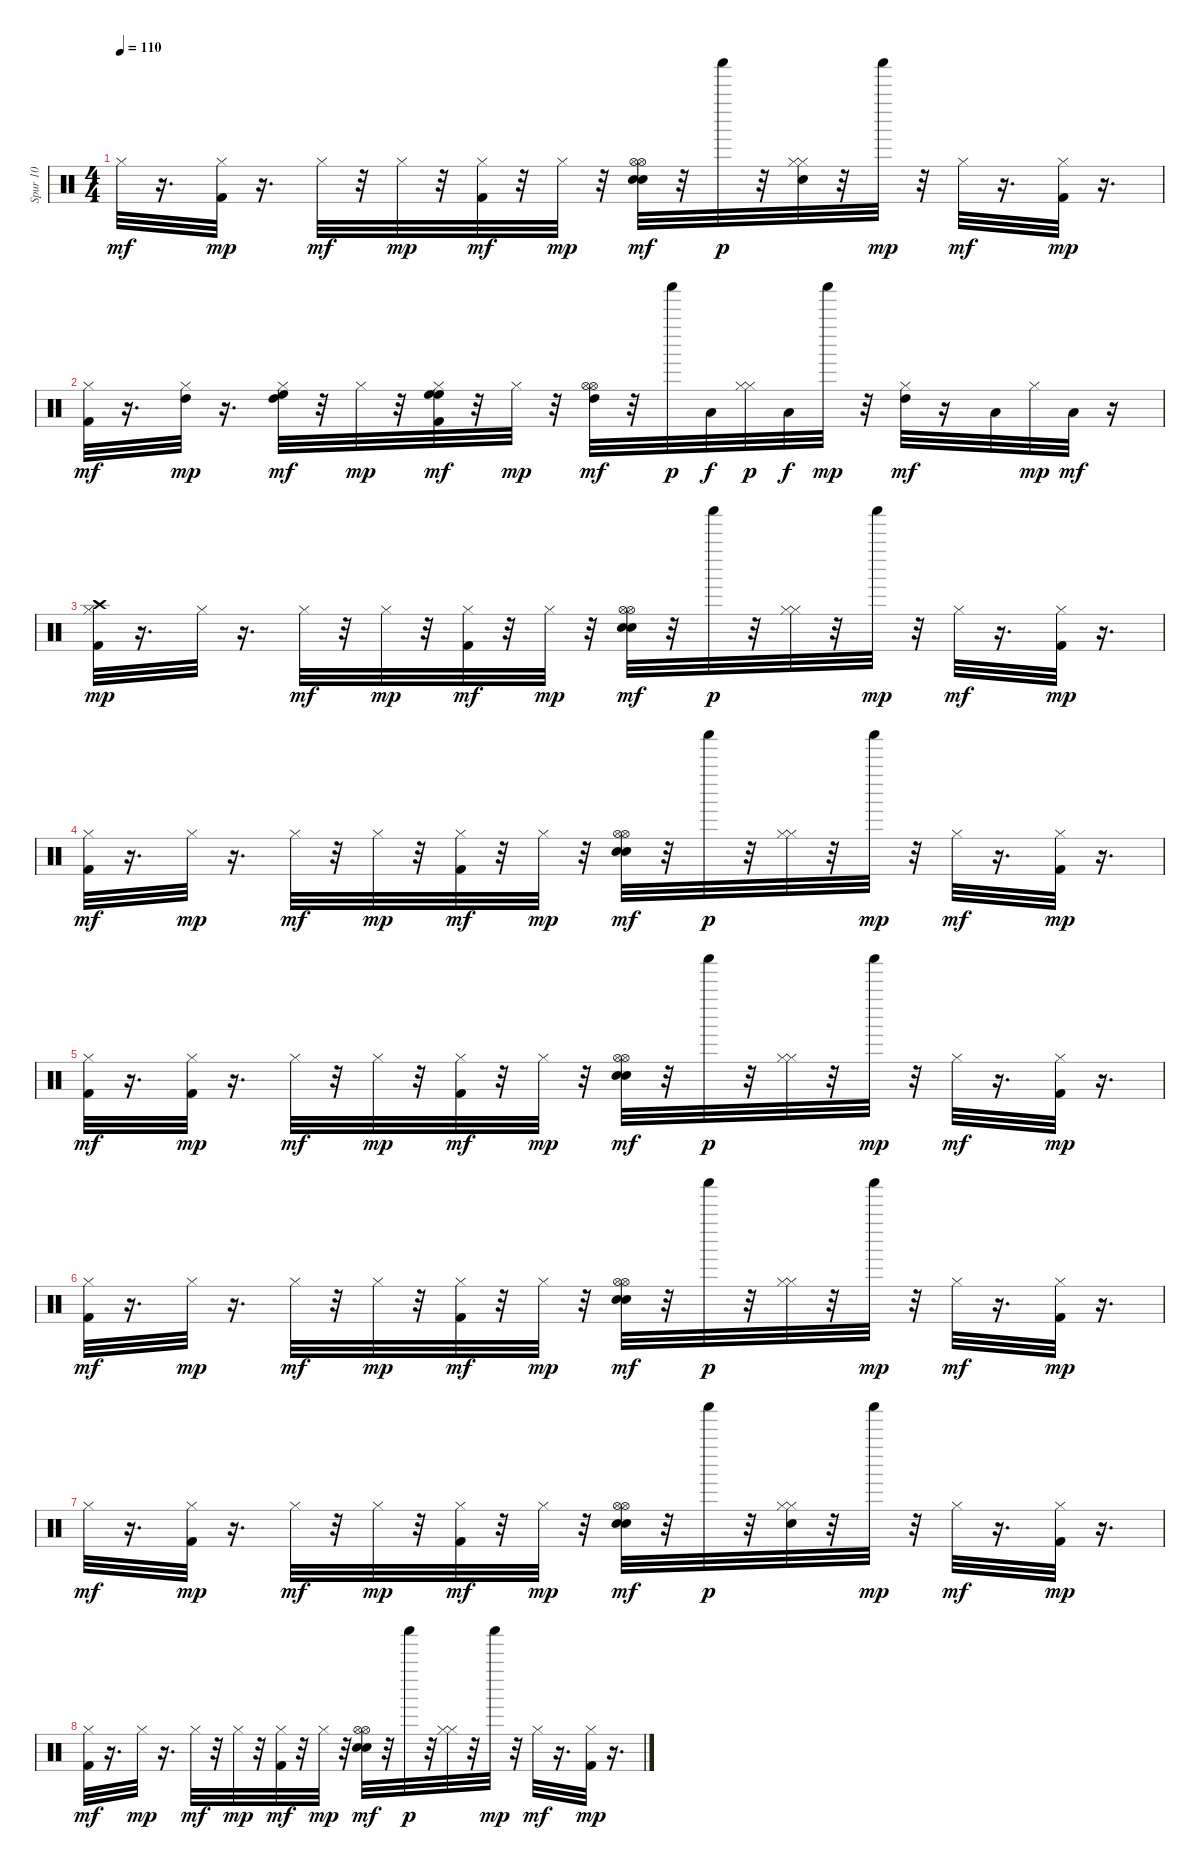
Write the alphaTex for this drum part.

\track ("Spur 10" "Spur 10") {instrument percussion}
\staff {score}
\articulation defaults
\ts (4 4)
\tempo 110
\clef neutral
\ks c "Hi-Hat (closed)".32{dy mf}
r.16{d} ("Kick (hit) 2" "Hi-Hat (closed)").32{dy mp} r.16{d} "Hi-Hat (closed)".32{dy mf} r.32 "Hi-Hat (closed)".32{dy mp} r.32 ("Kick (hit) 2" "Hi-Hat (closed)").32{dy mf} r.32 "Hi-Hat (closed)".32{dy mp} r.32 ("Hi-Hat (open)" "Snare (hit) 2" "Electric Snare (hit)" "Hi-Hat (open)").32{dy mf} r.32 "Shaker (hit)".32{dy p} r.32 ("Snare (hit) 2" "Hi-Hat (closed)" "Hi-Hat (closed)").32 r.32 "Shaker (hit)".32{dy mp} r.32 "Hi-Hat (closed)".32{dy mf} r.16{d} ("Kick (hit) 2" "Hi-Hat (closed)").32{dy mp} r.16{d} |
("Kick (hit) 2" "Hi-Hat (closed)").32{dy mf} r.16{d} ("Hi-Hat (closed)" "High Tom (hit)").32{dy mp} r.16{d} ("Hi-Hat (closed)" "High Tom (hit)" "High Floor Tom (hit)").32{dy mf} r.32 "Hi-Hat (closed)".32{dy mp} r.32 ("Kick (hit) 2" "Hi-Hat (closed)" "High Floor Tom (hit)" "High Floor Tom (hit)").32{dy mf} r.32 "Hi-Hat (closed)".32{dy mp} r.32 ("Hi-Hat (open)" "Hi-Hat (open)" "High Tom (hit)").32{dy mf} r.32 "Shaker (hit)".32{dy p} "Low Tom (hit)".32{dy f} ("Hi-Hat (closed)" "Hi-Hat (closed)").32{dy p} "Low Tom (hit)".32{dy f} "Shaker (hit)".32{dy mp} r.32 ("Hi-Hat (closed)" "High Tom (hit)").32{dy mf} r.16 "Low Floor Tom (hit)".32 "Hi-Hat (closed)".32{dy mp} "Low Floor Tom (hit)".32{dy mf} r.16 |
("Kick (hit) 2" "Hi-Hat (closed)" "Crash high (hit)").32{dy mp} r.16{d} "Hi-Hat (closed)".32 r.16{d} "Hi-Hat (closed)".32{dy mf} r.32 "Hi-Hat (closed)".32{dy mp} r.32 ("Kick (hit) 2" "Hi-Hat (closed)").32{dy mf} r.32 "Hi-Hat (closed)".32{dy mp} r.32 ("Hi-Hat (open)" "Snare (hit) 2" "Electric Snare (hit)" "Hi-Hat (open)").32{dy mf} r.32 "Shaker (hit)".32{dy p} r.32 ("Hi-Hat (closed)" "Hi-Hat (closed)").32 r.32 "Shaker (hit)".32{dy mp} r.32 "Hi-Hat (closed)".32{dy mf} r.16{d} ("Kick (hit) 2" "Hi-Hat (closed)").32{dy mp} r.16{d} |
("Kick (hit) 2" "Hi-Hat (closed)").32{dy mf} r.16{d} "Hi-Hat (closed)".32{dy mp} r.16{d} "Hi-Hat (closed)".32{dy mf} r.32 "Hi-Hat (closed)".32{dy mp} r.32 ("Kick (hit) 2" "Hi-Hat (closed)").32{dy mf} r.32 "Hi-Hat (closed)".32{dy mp} r.32 ("Hi-Hat (open)" "Snare (hit) 2" "Electric Snare (hit)" "Hi-Hat (open)").32{dy mf} r.32 "Shaker (hit)".32{dy p} r.32 ("Hi-Hat (closed)" "Hi-Hat (closed)").32 r.32 "Shaker (hit)".32{dy mp} r.32 "Hi-Hat (closed)".32{dy mf} r.16{d} ("Kick (hit) 2" "Hi-Hat (closed)").32{dy mp} r.16{d} |
("Kick (hit) 2" "Hi-Hat (closed)").32{dy mf} r.16{d} ("Kick (hit) 2" "Hi-Hat (closed)").32{dy mp} r.16{d} "Hi-Hat (closed)".32{dy mf} r.32 "Hi-Hat (closed)".32{dy mp} r.32 ("Kick (hit) 2" "Hi-Hat (closed)").32{dy mf} r.32 "Hi-Hat (closed)".32{dy mp} r.32 ("Hi-Hat (open)" "Snare (hit) 2" "Electric Snare (hit)" "Hi-Hat (open)").32{dy mf} r.32 "Shaker (hit)".32{dy p} r.32 ("Hi-Hat (closed)" "Hi-Hat (closed)").32 r.32 "Shaker (hit)".32{dy mp} r.32 "Hi-Hat (closed)".32{dy mf} r.16{d} ("Kick (hit) 2" "Hi-Hat (closed)").32{dy mp} r.16{d} |
("Kick (hit) 2" "Hi-Hat (closed)").32{dy mf} r.16{d} "Hi-Hat (closed)".32{dy mp} r.16{d} "Hi-Hat (closed)".32{dy mf} r.32 "Hi-Hat (closed)".32{dy mp} r.32 ("Kick (hit) 2" "Hi-Hat (closed)").32{dy mf} r.32 "Hi-Hat (closed)".32{dy mp} r.32 ("Hi-Hat (open)" "Snare (hit) 2" "Electric Snare (hit)" "Hi-Hat (open)").32{dy mf} r.32 "Shaker (hit)".32{dy p} r.32 ("Hi-Hat (closed)" "Hi-Hat (closed)").32 r.32 "Shaker (hit)".32{dy mp} r.32 "Hi-Hat (closed)".32{dy mf} r.16{d} ("Kick (hit) 2" "Hi-Hat (closed)").32{dy mp} r.16{d} |
"Hi-Hat (closed)".32{dy mf} r.16{d} ("Kick (hit) 2" "Hi-Hat (closed)").32{dy mp} r.16{d} "Hi-Hat (closed)".32{dy mf} r.32 "Hi-Hat (closed)".32{dy mp} r.32 ("Kick (hit) 2" "Hi-Hat (closed)").32{dy mf} r.32 "Hi-Hat (closed)".32{dy mp} r.32 ("Hi-Hat (open)" "Snare (hit) 2" "Electric Snare (hit)" "Hi-Hat (open)").32{dy mf} r.32 "Shaker (hit)".32{dy p} r.32 ("Snare (hit) 2" "Hi-Hat (closed)" "Hi-Hat (closed)").32 r.32 "Shaker (hit)".32{dy mp} r.32 "Hi-Hat (closed)".32{dy mf} r.16{d} ("Kick (hit) 2" "Hi-Hat (closed)").32{dy mp} r.16{d} |
("Kick (hit) 2" "Hi-Hat (closed)").32{dy mf} r.16{d} "Hi-Hat (closed)".32{dy mp} r.16{d} "Hi-Hat (closed)".32{dy mf} r.32 "Hi-Hat (closed)".32{dy mp} r.32 ("Kick (hit) 2" "Hi-Hat (closed)").32{dy mf} r.32 "Hi-Hat (closed)".32{dy mp} r.32 ("Hi-Hat (open)" "Snare (hit) 2" "Electric Snare (hit)" "Hi-Hat (open)").32{dy mf} r.32 "Shaker (hit)".32{dy p} r.32 ("Hi-Hat (closed)" "Hi-Hat (closed)").32 r.32 "Shaker (hit)".32{dy mp} r.32 "Hi-Hat (closed)".32{dy mf} r.16{d} ("Kick (hit) 2" "Hi-Hat (closed)").32{dy mp} r.16{d}
